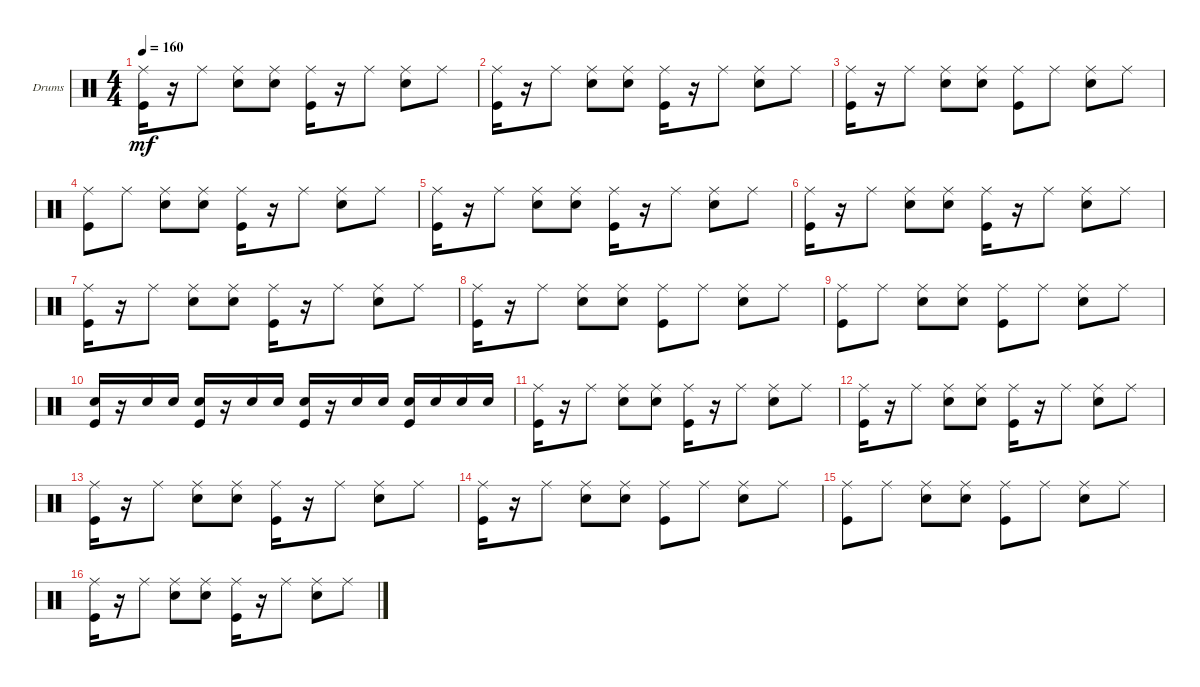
\defaultSystemsLayout 4
\bracketExtendMode groupsimilarinstruments
\firstSystemTrackNameOrientation horizontal
\otherSystemsTrackNameOrientation horizontal
\track ("Drumkit" "Drums") {instrument percussion}
\staff {score}
\articulation defaults
\ts (4 4)
\tempo 160
\clef neutral
\ks c
("Kick (hit)" "Ride (middle)").16{dy mf} r.16 "Ride (middle)".8 ("Snare (hit) 2" "Ride (middle)").8 ("Ride (middle)" "Snare (hit) 2").8 ("Kick (hit)" "Ride (middle)").16 r.16 "Ride (middle)".8 ("Ride (middle)" "Snare (hit) 2").8 "Ride (middle)".8 |
("Kick (hit)" "Ride (middle)").16 r.16 "Ride (middle)".8 ("Snare (hit) 2" "Ride (middle)").8 ("Ride (middle)" "Snare (hit) 2").8 ("Kick (hit)" "Ride (middle)").16 r.16 "Ride (middle)".8 ("Snare (hit) 2" "Ride (middle)").8 "Ride (middle)".8 |
("Kick (hit)" "Ride (middle)").16 r.16 "Ride (middle)".8 ("Snare (hit) 2" "Ride (middle)").8 ("Snare (hit) 2" "Ride (middle)").8 ("Kick (hit)" "Ride (middle)").8 "Ride (middle)".8 ("Ride (middle)" "Snare (hit) 2").8 "Ride (middle)".8 |
("Kick (hit)" "Ride (middle)").8 "Ride (middle)".8 ("Snare (hit) 2" "Ride (middle)").8 ("Snare (hit) 2" "Ride (middle)").8 ("Kick (hit)" "Ride (middle)").16 r.16 "Ride (middle)".8 ("Snare (hit) 2" "Ride (middle)").8 "Ride (middle)".8 |
("Kick (hit)" "Ride (middle)").16 r.16 "Ride (middle)".8 ("Snare (hit) 2" "Ride (middle)").8 ("Snare (hit) 2" "Ride (middle)").8 ("Kick (hit)" "Ride (middle)").16 r.16 "Ride (middle)".8 ("Snare (hit) 2" "Ride (middle)").8 "Ride (middle)".8 |
("Kick (hit)" "Ride (middle)").16 r.16 "Ride (middle)".8 ("Snare (hit) 2" "Ride (middle)").8 ("Snare (hit) 2" "Ride (middle)").8 ("Kick (hit)" "Ride (middle)").16 r.16 "Ride (middle)".8 ("Snare (hit) 2" "Ride (middle)").8 "Ride (middle)".8 |
("Kick (hit)" "Ride (middle)").16 r.16 "Ride (middle)".8 ("Snare (hit) 2" "Ride (middle)").8 ("Ride (middle)" "Snare (hit) 2").8 ("Kick (hit)" "Ride (middle)").16 r.16 "Ride (middle)".8 ("Snare (hit) 2" "Ride (middle)").8 "Ride (middle)".8 |
("Kick (hit)" "Ride (middle)").16 r.16 "Ride (middle)".8 ("Snare (hit) 2" "Ride (middle)").8 ("Ride (middle)" "Snare (hit) 2").8 ("Kick (hit)" "Ride (middle)").8 "Ride (middle)".8 ("Snare (hit) 2" "Ride (middle)").8 "Ride (middle)".8 |
("Kick (hit)" "Ride (middle)").8 "Ride (middle)".8 ("Snare (hit) 2" "Ride (middle)").8 ("Snare (hit) 2" "Ride (middle)").8 ("Kick (hit)" "Ride (middle)").8 "Ride (middle)".8 ("Ride (middle)" "Snare (hit) 2").8 "Ride (middle)".8 |
("Snare (hit) 2" "Kick (hit)").16 r.16 "Snare (hit) 2".16 "Snare (hit) 2".16 ("Kick (hit)" "Snare (hit) 2").16 r.16 "Snare (hit) 2".16 "Snare (hit) 2".16 ("Kick (hit)" "Snare (hit) 2").16 r.16 "Snare (hit) 2".16 "Snare (hit) 2".16 ("Snare (hit) 2" "Kick (hit)").16 "Snare (hit) 2".16 "Snare (hit) 2".16 "Snare (hit) 2".16 |
("Kick (hit)" "Ride (middle)").16 r.16 "Ride (middle)".8 ("Snare (hit) 2" "Ride (middle)").8 ("Ride (middle)" "Snare (hit) 2").8 ("Kick (hit)" "Ride (middle)").16 r.16 "Ride (middle)".8 ("Snare (hit) 2" "Ride (middle)").8 "Ride (middle)".8 |
("Kick (hit)" "Ride (middle)").16 r.16 "Ride (middle)".8 ("Snare (hit) 2" "Ride (middle)").8 ("Snare (hit) 2" "Ride (middle)").8 ("Kick (hit)" "Ride (middle)").16 r.16 "Ride (middle)".8 ("Ride (middle)" "Snare (hit) 2").8 "Ride (middle)".8 |
("Kick (hit)" "Ride (middle)").16 r.16 "Ride (middle)".8 ("Snare (hit) 2" "Ride (middle)").8 ("Snare (hit) 2" "Ride (middle)").8 ("Kick (hit)" "Ride (middle)").16 r.16 "Ride (middle)".8 ("Ride (middle)" "Snare (hit) 2").8 "Ride (middle)".8 |
("Kick (hit)" "Ride (middle)").16 r.16 "Ride (middle)".8 ("Snare (hit) 2" "Ride (middle)").8 ("Snare (hit) 2" "Ride (middle)").8 ("Kick (hit)" "Ride (middle)").8 "Ride (middle)".8 ("Snare (hit) 2" "Ride (middle)").8 "Ride (middle)".8 |
("Kick (hit)" "Ride (middle)").8 "Ride (middle)".8 ("Snare (hit) 2" "Ride (middle)").8 ("Snare (hit) 2" "Ride (middle)").8 ("Kick (hit)" "Ride (middle)").8 "Ride (middle)".8 ("Snare (hit) 2" "Ride (middle)").8 "Ride (middle)".8 |
("Kick (hit)" "Ride (middle)").16 r.16 "Ride (middle)".8 ("Snare (hit) 2" "Ride (middle)").8 ("Snare (hit) 2" "Ride (middle)").8 ("Kick (hit)" "Ride (middle)").16 r.16 "Ride (middle)".8 ("Snare (hit) 2" "Ride (middle)").8 "Ride (middle)".8
